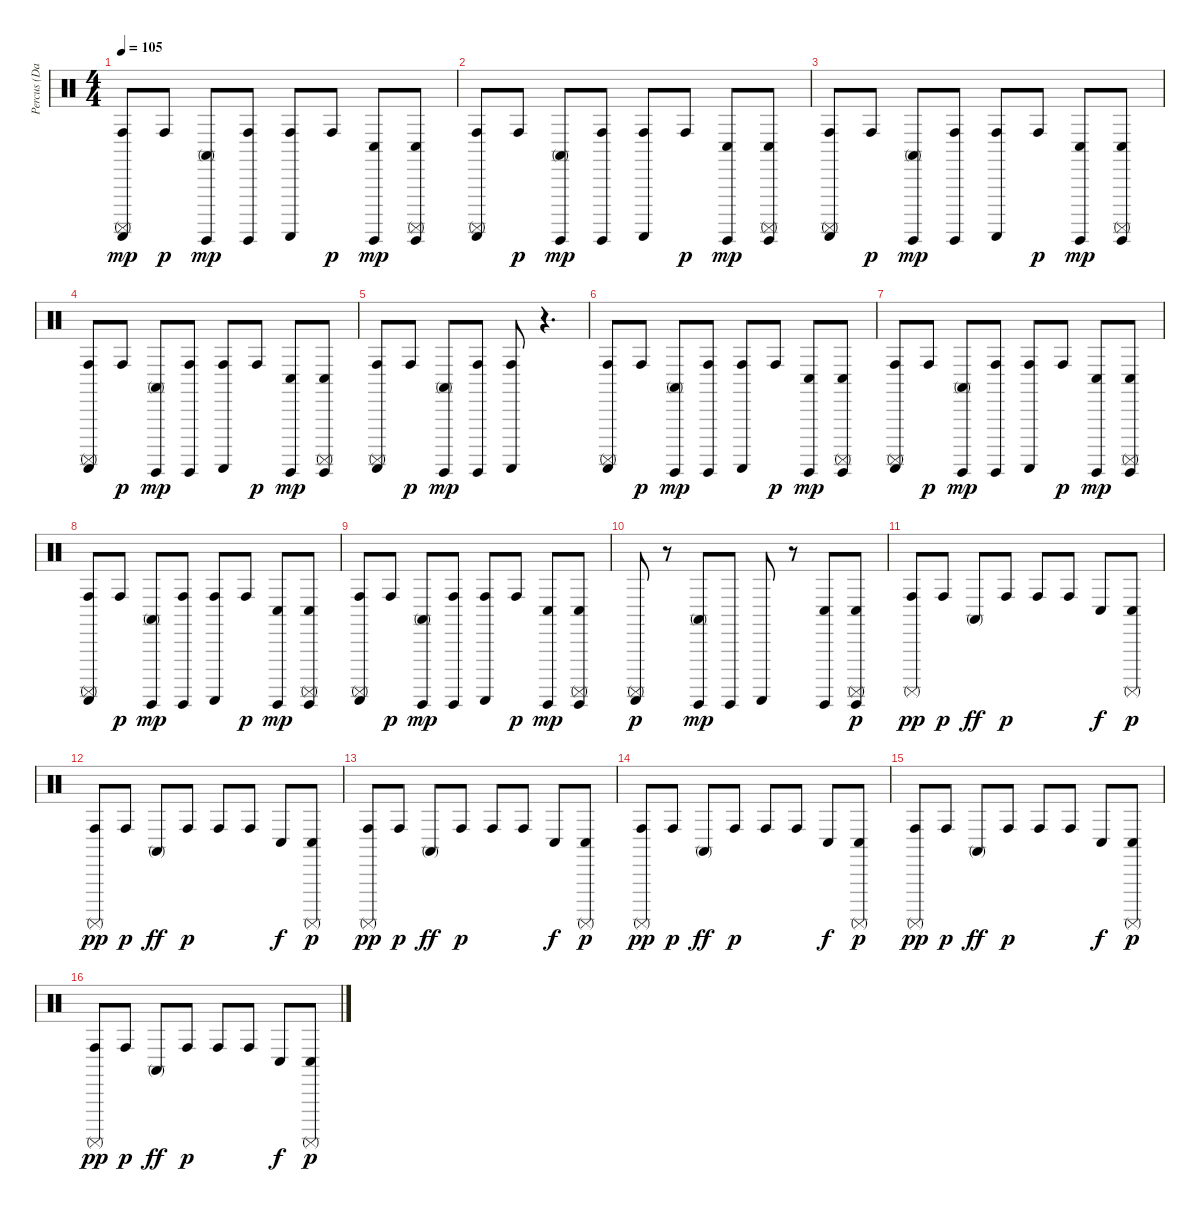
\track ("Percus (Daniel+Mali)" "Percus (Da") {instrument percussion}
\staff {score}
\articulation defaults
\ts (4 4)
\tempo 105
\clef neutral
\ks c
("Conga high (hit)" "Guiro (scrap-return)" "Surdo (mute)").8{dy mp} "Conga high (hit)".8{dy p} ("Conga high (mute)" "Guiro (hit)").8{dy mp} ("Conga high (hit)" "Guiro (hit)").8 ("Conga high (hit)" "Guiro (scrap-return)").8 "Conga high (hit)".8{dy p} ("Conga low (hit)" "Guiro (hit)").8{dy mp} ("Conga low (hit)" "Guiro (hit)" "Surdo (mute)").8 |
("Conga high (hit)" "Guiro (scrap-return)" "Surdo (mute)").8 "Conga high (hit)".8{dy p} ("Conga high (mute)" "Guiro (hit)").8{dy mp} ("Conga high (hit)" "Guiro (hit)").8 ("Conga high (hit)" "Guiro (scrap-return)").8 "Conga high (hit)".8{dy p} ("Conga low (hit)" "Guiro (hit)").8{dy mp} ("Conga low (hit)" "Guiro (hit)" "Surdo (mute)").8 |
("Conga high (hit)" "Guiro (scrap-return)" "Surdo (mute)").8 "Conga high (hit)".8{dy p} ("Conga high (mute)" "Guiro (hit)").8{dy mp} ("Conga high (hit)" "Guiro (hit)").8 ("Conga high (hit)" "Guiro (scrap-return)").8 "Conga high (hit)".8{dy p} ("Conga low (hit)" "Guiro (hit)").8{dy mp} ("Conga low (hit)" "Guiro (hit)" "Surdo (mute)").8 |
("Conga high (hit)" "Guiro (scrap-return)" "Surdo (mute)").8 "Conga high (hit)".8{dy p} ("Conga high (mute)" "Guiro (hit)").8{dy mp} ("Conga high (hit)" "Guiro (hit)").8 ("Conga high (hit)" "Guiro (scrap-return)").8 "Conga high (hit)".8{dy p} ("Conga low (hit)" "Guiro (hit)").8{dy mp} ("Conga low (hit)" "Guiro (hit)" "Surdo (mute)").8 |
("Conga high (hit)" "Guiro (scrap-return)" "Surdo (mute)").8 "Conga high (hit)".8{dy p} ("Conga high (mute)" "Guiro (hit)").8{dy mp} ("Conga high (hit)" "Guiro (hit)").8 ("Conga high (hit)" "Guiro (scrap-return)").8 r.4{d} |
("Conga high (hit)" "Guiro (scrap-return)" "Surdo (mute)").8 "Conga high (hit)".8{dy p} ("Conga high (mute)" "Guiro (hit)").8{dy mp} ("Conga high (hit)" "Guiro (hit)").8 ("Conga high (hit)" "Guiro (scrap-return)").8 "Conga high (hit)".8{dy p} ("Conga low (hit)" "Guiro (hit)").8{dy mp} ("Conga low (hit)" "Guiro (hit)" "Surdo (mute)").8 |
("Conga high (hit)" "Guiro (scrap-return)" "Surdo (mute)").8 "Conga high (hit)".8{dy p} ("Conga high (mute)" "Guiro (hit)").8{dy mp} ("Conga high (hit)" "Guiro (hit)").8 ("Conga high (hit)" "Guiro (scrap-return)").8 "Conga high (hit)".8{dy p} ("Conga low (hit)" "Guiro (hit)").8{dy mp} ("Conga low (hit)" "Guiro (hit)" "Surdo (mute)").8 |
("Conga high (hit)" "Guiro (scrap-return)" "Surdo (mute)").8 "Conga high (hit)".8{dy p} ("Conga high (mute)" "Guiro (hit)").8{dy mp} ("Conga high (hit)" "Guiro (hit)").8 ("Conga high (hit)" "Guiro (scrap-return)").8 "Conga high (hit)".8{dy p} ("Conga low (hit)" "Guiro (hit)").8{dy mp} ("Conga low (hit)" "Guiro (hit)" "Surdo (mute)").8 |
("Conga high (hit)" "Guiro (scrap-return)" "Surdo (mute)").8 "Conga high (hit)".8{dy p} ("Conga high (mute)" "Guiro (hit)").8{dy mp} ("Conga high (hit)" "Guiro (hit)").8 ("Conga high (hit)" "Guiro (scrap-return)").8 "Conga high (hit)".8{dy p} ("Conga low (hit)" "Guiro (hit)").8{dy mp} ("Conga low (hit)" "Guiro (hit)" "Surdo (mute)").8 |
("Guiro (scrap-return)" "Surdo (mute)").8{dy p} r.8 ("Conga high (mute)" "Guiro (hit)").8{dy mp} "Guiro (hit)".8 "Guiro (scrap-return)".8 r.8 ("Conga low (hit)" "Guiro (hit)").8 ("Conga low (hit)" "Guiro (hit)" "Surdo (mute)").8{dy p} |
("Surdo (mute)" "Conga high (hit)").8{dy pp} "Conga high (hit)".8{dy p} "Conga high (mute)".8{dy ff} "Conga high (hit)".8{dy p} "Conga high (hit)".8 "Conga high (hit)".8 "Conga low (hit)".8{dy f} ("Conga low (hit)" "Surdo (mute)").8{dy p} |
("Surdo (mute)" "Conga high (hit)").8{dy pp} "Conga high (hit)".8{dy p} "Conga high (mute)".8{dy ff} "Conga high (hit)".8{dy p} "Conga high (hit)".8 "Conga high (hit)".8 "Conga low (hit)".8{dy f} ("Conga low (hit)" "Surdo (mute)").8{dy p} |
("Surdo (mute)" "Conga high (hit)").8{dy pp} "Conga high (hit)".8{dy p} "Conga high (mute)".8{dy ff} "Conga high (hit)".8{dy p} "Conga high (hit)".8 "Conga high (hit)".8 "Conga low (hit)".8{dy f} ("Conga low (hit)" "Surdo (mute)").8{dy p} |
("Surdo (mute)" "Conga high (hit)").8{dy pp} "Conga high (hit)".8{dy p} "Conga high (mute)".8{dy ff} "Conga high (hit)".8{dy p} "Conga high (hit)".8 "Conga high (hit)".8 "Conga low (hit)".8{dy f} ("Conga low (hit)" "Surdo (mute)").8{dy p} |
("Surdo (mute)" "Conga high (hit)").8{dy pp} "Conga high (hit)".8{dy p} "Conga high (mute)".8{dy ff} "Conga high (hit)".8{dy p} "Conga high (hit)".8 "Conga high (hit)".8 "Conga low (hit)".8{dy f} ("Conga low (hit)" "Surdo (mute)").8{dy p} |
("Surdo (mute)" "Conga high (hit)").8{dy pp} "Conga high (hit)".8{dy p} "Conga high (mute)".8{dy ff} "Conga high (hit)".8{dy p} "Conga high (hit)".8 "Conga high (hit)".8 "Conga low (hit)".8{dy f} ("Conga low (hit)" "Surdo (mute)").8{dy p}
